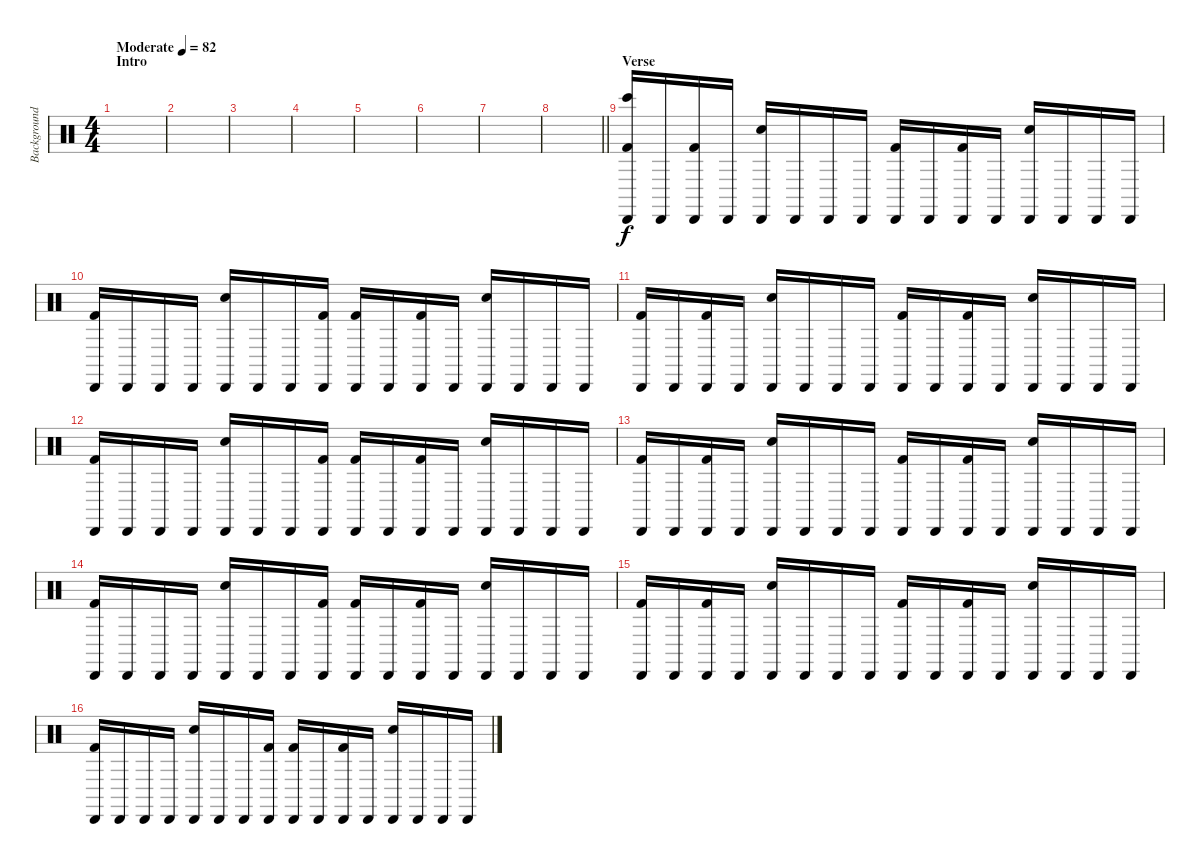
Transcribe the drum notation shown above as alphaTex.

\track ("Background Drums" "Background") {instrument percussion}
\staff {score}
\articulation defaults
\ts (4 4)
\section ("" "Intro")
\tempo (82 "Moderate")
\clef neutral
\ks c
|
|
|
|
|
|
|
\barLineRight lightlight
|
\section ("" "Verse")
("Cabasa (hit)" "Bongo High (hit)" "Kick (hit) 2").16 "Cabasa (hit)".16 ("Cabasa (hit)" "Kick (hit) 2").16 "Cabasa (hit)".16 ("Cabasa (hit)" "Snare (hit) 2").16 "Cabasa (hit)".16 "Cabasa (hit)".16 "Cabasa (hit)".16 ("Cabasa (hit)" "Kick (hit) 2").16 "Cabasa (hit)".16 ("Cabasa (hit)" "Kick (hit) 2").16 "Cabasa (hit)".16 ("Cabasa (hit)" "Snare (hit) 2").16 "Cabasa (hit)".16 "Cabasa (hit)".16 "Cabasa (hit)".16 |
("Cabasa (hit)" "Kick (hit) 2").16 "Cabasa (hit)".16 "Cabasa (hit)".16 "Cabasa (hit)".16 ("Cabasa (hit)" "Snare (hit) 2").16 "Cabasa (hit)".16 "Cabasa (hit)".16 ("Cabasa (hit)" "Kick (hit) 2").16 ("Cabasa (hit)" "Kick (hit) 2").16 "Cabasa (hit)".16 ("Cabasa (hit)" "Kick (hit) 2").16 "Cabasa (hit)".16 ("Cabasa (hit)" "Snare (hit) 2").16 "Cabasa (hit)".16 "Cabasa (hit)".16 "Cabasa (hit)".16 |
("Cabasa (hit)" "Kick (hit) 2").16 "Cabasa (hit)".16 ("Cabasa (hit)" "Kick (hit) 2").16 "Cabasa (hit)".16 ("Cabasa (hit)" "Snare (hit) 2").16 "Cabasa (hit)".16 "Cabasa (hit)".16 "Cabasa (hit)".16 ("Cabasa (hit)" "Kick (hit) 2").16 "Cabasa (hit)".16 ("Cabasa (hit)" "Kick (hit) 2").16 "Cabasa (hit)".16 ("Cabasa (hit)" "Snare (hit) 2").16 "Cabasa (hit)".16 "Cabasa (hit)".16 "Cabasa (hit)".16 |
("Cabasa (hit)" "Kick (hit) 2").16 "Cabasa (hit)".16 "Cabasa (hit)".16 "Cabasa (hit)".16 ("Cabasa (hit)" "Snare (hit) 2").16 "Cabasa (hit)".16 "Cabasa (hit)".16 ("Cabasa (hit)" "Kick (hit) 2").16 ("Cabasa (hit)" "Kick (hit) 2").16 "Cabasa (hit)".16 ("Cabasa (hit)" "Kick (hit) 2").16 "Cabasa (hit)".16 ("Cabasa (hit)" "Snare (hit) 2").16 "Cabasa (hit)".16 "Cabasa (hit)".16 "Cabasa (hit)".16 |
("Cabasa (hit)" "Kick (hit) 2").16 "Cabasa (hit)".16 ("Cabasa (hit)" "Kick (hit) 2").16 "Cabasa (hit)".16 ("Cabasa (hit)" "Snare (hit) 2").16 "Cabasa (hit)".16 "Cabasa (hit)".16 "Cabasa (hit)".16 ("Cabasa (hit)" "Kick (hit) 2").16 "Cabasa (hit)".16 ("Cabasa (hit)" "Kick (hit) 2").16 "Cabasa (hit)".16 ("Cabasa (hit)" "Snare (hit) 2").16 "Cabasa (hit)".16 "Cabasa (hit)".16 "Cabasa (hit)".16 |
("Cabasa (hit)" "Kick (hit) 2").16 "Cabasa (hit)".16 "Cabasa (hit)".16 "Cabasa (hit)".16 ("Cabasa (hit)" "Snare (hit) 2").16 "Cabasa (hit)".16 "Cabasa (hit)".16 ("Cabasa (hit)" "Kick (hit) 2").16 ("Cabasa (hit)" "Kick (hit) 2").16 "Cabasa (hit)".16 ("Cabasa (hit)" "Kick (hit) 2").16 "Cabasa (hit)".16 ("Cabasa (hit)" "Snare (hit) 2").16 "Cabasa (hit)".16 "Cabasa (hit)".16 "Cabasa (hit)".16 |
("Cabasa (hit)" "Kick (hit) 2").16 "Cabasa (hit)".16 ("Cabasa (hit)" "Kick (hit) 2").16 "Cabasa (hit)".16 ("Cabasa (hit)" "Snare (hit) 2").16 "Cabasa (hit)".16 "Cabasa (hit)".16 "Cabasa (hit)".16 ("Cabasa (hit)" "Kick (hit) 2").16 "Cabasa (hit)".16 ("Cabasa (hit)" "Kick (hit) 2").16 "Cabasa (hit)".16 ("Cabasa (hit)" "Snare (hit) 2").16 "Cabasa (hit)".16 "Cabasa (hit)".16 "Cabasa (hit)".16 |
("Cabasa (hit)" "Kick (hit) 2").16 "Cabasa (hit)".16 "Cabasa (hit)".16 "Cabasa (hit)".16 ("Cabasa (hit)" "Snare (hit) 2").16 "Cabasa (hit)".16 "Cabasa (hit)".16 ("Cabasa (hit)" "Kick (hit) 2").16 ("Cabasa (hit)" "Kick (hit) 2").16 "Cabasa (hit)".16 ("Cabasa (hit)" "Kick (hit) 2").16 "Cabasa (hit)".16 ("Cabasa (hit)" "Snare (hit) 2").16 "Cabasa (hit)".16 "Cabasa (hit)".16 "Cabasa (hit)".16
